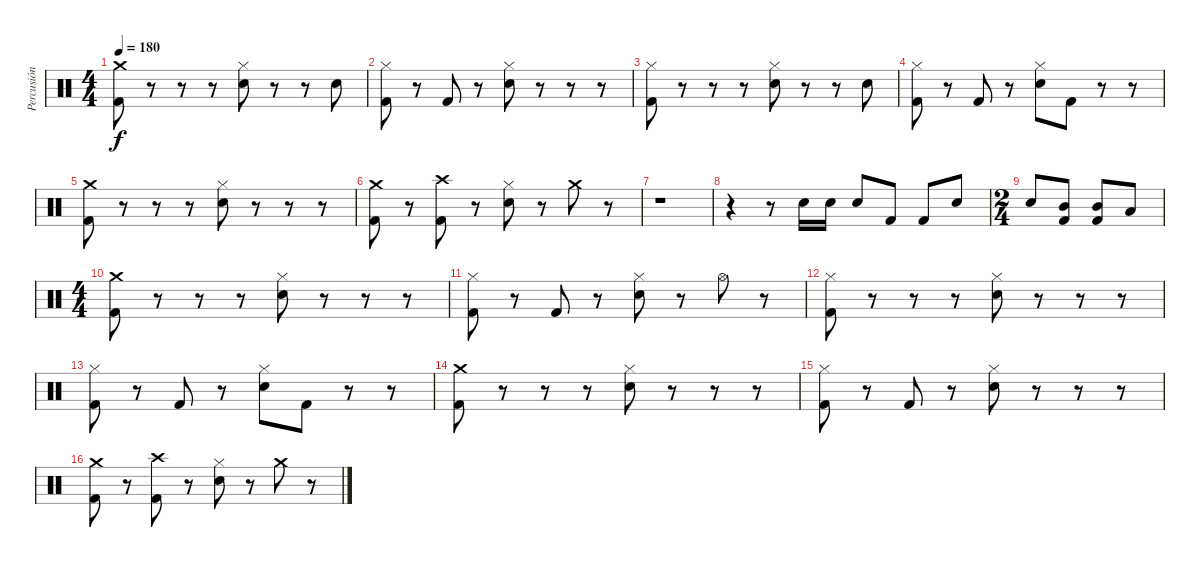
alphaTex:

\track ("Percusión" "Percusión") {instrument percussion}
\staff {score}
\articulation defaults
\ts (4 4)
\tempo 180
\clef neutral
\ks c
("Crash medium (hit)" "Kick (hit) 2").8{dy f} r.8 r.8 r.8 ("Hi-Hat (closed)" "Snare (hit) 2").8 r.8 r.8 "Snare (hit) 2".8 |
("Hi-Hat (closed)" "Kick (hit) 2").8 r.8 "Kick (hit) 2".8 r.8 ("Hi-Hat (closed)" "Snare (hit) 2").8 r.8 r.8 r.8 |
("Hi-Hat (closed)" "Kick (hit) 2").8 r.8 r.8 r.8 ("Hi-Hat (closed)" "Snare (hit) 2").8 r.8 r.8 "Snare (hit) 2".8 |
("Hi-Hat (closed)" "Kick (hit) 2").8 r.8 "Kick (hit) 2".8 r.8 ("Hi-Hat (closed)" "Snare (hit) 2").8 "Kick (hit) 2".8 r.8 r.8 |
("Crash medium (hit)" "Kick (hit) 2").8 r.8 r.8 r.8 ("Hi-Hat (closed)" "Snare (hit) 2").8 r.8 r.8 r.8 |
("Crash medium (hit)" "Kick (hit) 2").8 r.8 ("Crash high (hit)" "Kick (hit) 2").8 r.8 ("Hi-Hat (closed)" "Snare (hit) 2").8 r.8 "Crash medium (hit)".8 r.8 |
r.1 |
r.4 r.8 "Snare (hit) 2".16 "Snare (hit) 2".16 "Snare (hit) 2".8 "Kick (hit) 2".8 "Kick (hit) 2".8 "Snare (hit) 2".8 |
\ts (2 4)
"Snare (hit) 2".8 ("Mid Tom (hit)" "Kick (hit) 2").8 ("Mid Tom (hit)" "Kick (hit) 2").8 "Low Tom (hit)".8 |
\ts (4 4)
("Crash medium (hit)" "Kick (hit) 2").8 r.8 r.8 r.8 ("Hi-Hat (closed)" "Snare (hit) 2").8 r.8 r.8 r.8 |
("Hi-Hat (closed)" "Kick (hit) 2").8 r.8 "Kick (hit) 2".8 r.8 ("Hi-Hat (closed)" "Snare (hit) 2").8 r.8 "Hi-Hat (open)".8 r.8 |
("Hi-Hat (closed)" "Kick (hit) 2").8 r.8 r.8 r.8 ("Hi-Hat (closed)" "Snare (hit) 2").8 r.8 r.8 r.8 |
("Hi-Hat (closed)" "Kick (hit) 2").8 r.8 "Kick (hit) 2".8 r.8 ("Hi-Hat (closed)" "Snare (hit) 2").8 "Kick (hit) 2".8 r.8 r.8 |
("Crash medium (hit)" "Kick (hit) 2").8 r.8 r.8 r.8 ("Hi-Hat (closed)" "Snare (hit) 2").8 r.8 r.8 r.8 |
("Hi-Hat (closed)" "Kick (hit) 2").8 r.8 "Kick (hit) 2".8 r.8 ("Hi-Hat (closed)" "Snare (hit) 2").8 r.8 r.8 r.8 |
("Crash medium (hit)" "Kick (hit) 2").8 r.8 ("Crash high (hit)" "Kick (hit) 2").8 r.8 ("Hi-Hat (closed)" "Snare (hit) 2").8 r.8 "Crash medium (hit)".8 r.8
